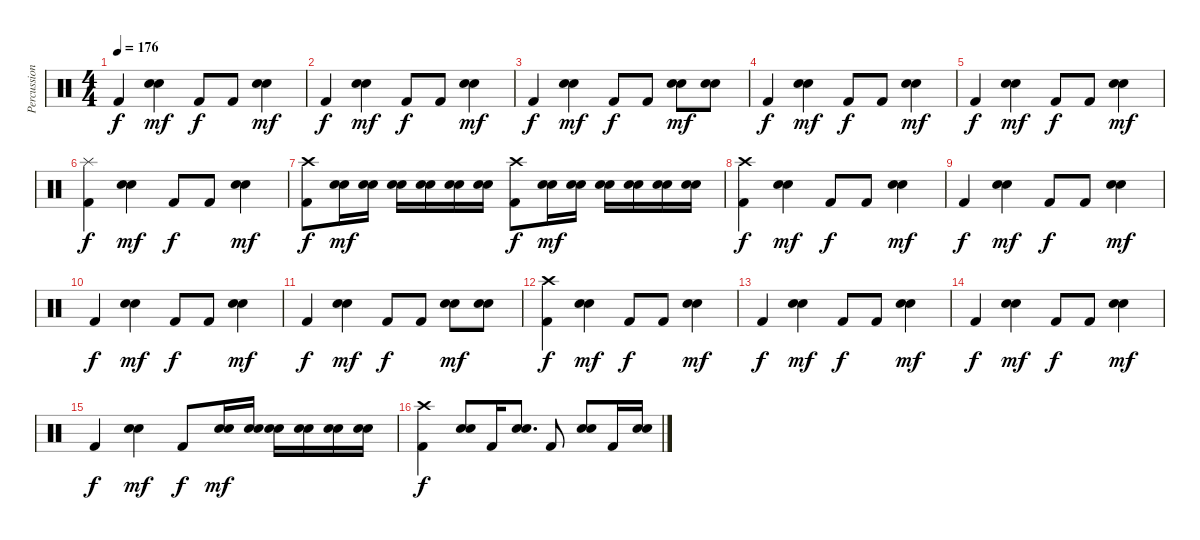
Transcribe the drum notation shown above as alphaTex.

\track ("Percussion" "Percussion") {instrument percussion}
\staff {score}
\articulation defaults
\ts (4 4)
\tempo 176
\clef neutral
\ks c "Kick (hit) 2".4{dy f}
("Electric Snare (hit)" "Snare (hit) 2").4{dy mf} "Kick (hit) 2".8{dy f} "Kick (hit) 2".8 ("Electric Snare (hit)" "Snare (hit) 2").4{dy mf} |
"Kick (hit) 2".4{dy f} ("Electric Snare (hit)" "Snare (hit) 2").4{dy mf} "Kick (hit) 2".8{dy f} "Kick (hit) 2".8 ("Electric Snare (hit)" "Snare (hit) 2").4{dy mf} |
"Kick (hit) 2".4{dy f} ("Electric Snare (hit)" "Snare (hit) 2").4{dy mf} "Kick (hit) 2".8{dy f} "Kick (hit) 2".8 ("Electric Snare (hit)" "Snare (hit) 2").8{dy mf} ("Electric Snare (hit)" "Snare (hit) 2").8 |
"Kick (hit) 2".4{dy f} ("Electric Snare (hit)" "Snare (hit) 2").4{dy mf} "Kick (hit) 2".8{dy f} "Kick (hit) 2".8 ("Electric Snare (hit)" "Snare (hit) 2").4{dy mf} |
"Kick (hit) 2".4{dy f} ("Electric Snare (hit)" "Snare (hit) 2").4{dy mf} "Kick (hit) 2".8{dy f} "Kick (hit) 2".8 ("Electric Snare (hit)" "Snare (hit) 2").4{dy mf} |
("Kick (hit) 2" "Splash (hit)").4{dy f} ("Electric Snare (hit)" "Snare (hit) 2").4{dy mf} "Kick (hit) 2".8{dy f} "Kick (hit) 2".8 ("Electric Snare (hit)" "Snare (hit) 2").4{dy mf} |
("Kick (hit) 2" "Crash high (hit)").8{dy f} ("Electric Snare (hit)" "Snare (hit) 2").16{dy mf} ("Electric Snare (hit)" "Snare (hit) 2").16 ("Electric Snare (hit)" "Snare (hit) 2").16 ("Electric Snare (hit)" "Snare (hit) 2").16 ("Electric Snare (hit)" "Snare (hit) 2").16 ("Electric Snare (hit)" "Snare (hit) 2").16 ("Kick (hit) 2" "Crash high (hit)").8{dy f} ("Electric Snare (hit)" "Snare (hit) 2").16{dy mf} ("Electric Snare (hit)" "Snare (hit) 2").16 ("Electric Snare (hit)" "Snare (hit) 2").16 ("Electric Snare (hit)" "Snare (hit) 2").16 ("Electric Snare (hit)" "Snare (hit) 2").16 ("Electric Snare (hit)" "Snare (hit) 2").16 |
("Kick (hit) 2" "Crash high (hit)").4{dy f} ("Electric Snare (hit)" "Snare (hit) 2").4{dy mf} "Kick (hit) 2".8{dy f} "Kick (hit) 2".8 ("Electric Snare (hit)" "Snare (hit) 2").4{dy mf} |
"Kick (hit) 2".4{dy f} ("Electric Snare (hit)" "Snare (hit) 2").4{dy mf} "Kick (hit) 2".8{dy f} "Kick (hit) 2".8 ("Electric Snare (hit)" "Snare (hit) 2").4{dy mf} |
"Kick (hit) 2".4{dy f} ("Electric Snare (hit)" "Snare (hit) 2").4{dy mf} "Kick (hit) 2".8{dy f} "Kick (hit) 2".8 ("Electric Snare (hit)" "Snare (hit) 2").4{dy mf} |
"Kick (hit) 2".4{dy f} ("Electric Snare (hit)" "Snare (hit) 2").4{dy mf} "Kick (hit) 2".8{dy f} "Kick (hit) 2".8 ("Electric Snare (hit)" "Snare (hit) 2").8{dy mf} ("Electric Snare (hit)" "Snare (hit) 2").8 |
("Kick (hit) 2" "Crash high (hit)").4{dy f} ("Electric Snare (hit)" "Snare (hit) 2").4{dy mf} "Kick (hit) 2".8{dy f} "Kick (hit) 2".8 ("Electric Snare (hit)" "Snare (hit) 2").4{dy mf} |
"Kick (hit) 2".4{dy f} ("Electric Snare (hit)" "Snare (hit) 2").4{dy mf} "Kick (hit) 2".8{dy f} "Kick (hit) 2".8 ("Electric Snare (hit)" "Snare (hit) 2").4{dy mf} |
"Kick (hit) 2".4{dy f} ("Electric Snare (hit)" "Snare (hit) 2").4{dy mf} "Kick (hit) 2".8{dy f} "Kick (hit) 2".8 ("Electric Snare (hit)" "Snare (hit) 2").4{dy mf} |
"Kick (hit) 2".4{dy f} ("Electric Snare (hit)" "Snare (hit) 2").4{dy mf} "Kick (hit) 2".8{dy f} ("Electric Snare (hit)" "Snare (hit) 2").16{dy mf} ("Electric Snare (hit)" "Snare (hit) 2").16 ("Electric Snare (hit)" "Snare (hit) 2").16 ("Electric Snare (hit)" "Snare (hit) 2").16 ("Electric Snare (hit)" "Snare (hit) 2").16 ("Electric Snare (hit)" "Snare (hit) 2").16 |
("Kick (hit) 2" "Crash high (hit)").4{dy f} ("Electric Snare (hit)" "Snare (hit) 2").8 "Kick (hit) 2".16 ("Electric Snare (hit)" "Snare (hit) 2").8{d} "Kick (hit) 2".8 ("Electric Snare (hit)" "Snare (hit) 2").8 "Kick (hit) 2".16 ("Electric Snare (hit)" "Snare (hit) 2").16
